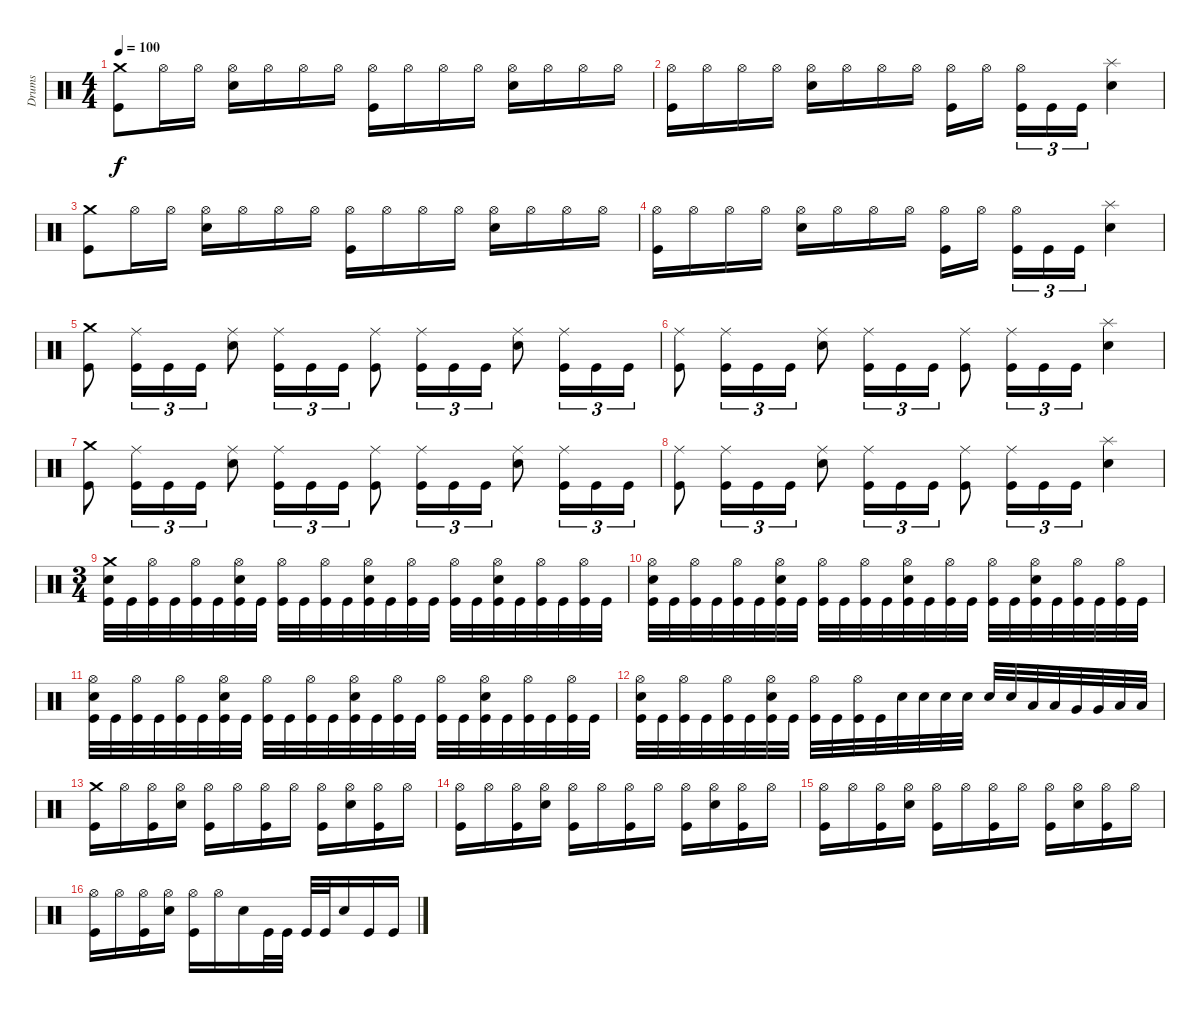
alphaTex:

\track ("Drums" "Drums") {instrument percussion}
\staff {score}
\articulation defaults
\ts (4 4)
\tempo 100
\clef neutral
\ks c
("Kick (hit)" "Crash medium (hit)").8{dy f} "Hi-Hat (open)".16 "Hi-Hat (open)".16 ("Hi-Hat (open)" "Electric Snare (hit)").16 "Hi-Hat (open)".16 "Hi-Hat (open)".16 "Hi-Hat (open)".16 ("Kick (hit)" "Hi-Hat (open)").16 "Hi-Hat (open)".16 "Hi-Hat (open)".16 "Hi-Hat (open)".16 ("Hi-Hat (open)" "Electric Snare (hit)").16 "Hi-Hat (open)".16 "Hi-Hat (open)".16 "Hi-Hat (open)".16 |
("Kick (hit)" "Hi-Hat (open)").16 "Hi-Hat (open)".16 "Hi-Hat (open)".16 "Hi-Hat (open)".16 ("Hi-Hat (open)" "Electric Snare (hit)").16 "Hi-Hat (open)".16 "Hi-Hat (open)".16 "Hi-Hat (open)".16 ("Kick (hit)" "Hi-Hat (open)").16 "Hi-Hat (open)".16 ("Kick (hit)" "Hi-Hat (open)").16{tu (3 2)} "Kick (hit)".16{tu (3 2)} "Kick (hit)".16{tu (3 2)} ("Electric Snare (hit)" "Splash (hit)").4 |
("Kick (hit)" "Crash medium (hit)").8 "Hi-Hat (open)".16 "Hi-Hat (open)".16 ("Hi-Hat (open)" "Electric Snare (hit)").16 "Hi-Hat (open)".16 "Hi-Hat (open)".16 "Hi-Hat (open)".16 ("Kick (hit)" "Hi-Hat (open)").16 "Hi-Hat (open)".16 "Hi-Hat (open)".16 "Hi-Hat (open)".16 ("Hi-Hat (open)" "Electric Snare (hit)").16 "Hi-Hat (open)".16 "Hi-Hat (open)".16 "Hi-Hat (open)".16 |
("Kick (hit)" "Hi-Hat (open)").16 "Hi-Hat (open)".16 "Hi-Hat (open)".16 "Hi-Hat (open)".16 ("Hi-Hat (open)" "Electric Snare (hit)").16 "Hi-Hat (open)".16 "Hi-Hat (open)".16 "Hi-Hat (open)".16 ("Kick (hit)" "Hi-Hat (open)").16 "Hi-Hat (open)".16 ("Kick (hit)" "Hi-Hat (open)").16{tu (3 2)} "Kick (hit)".16{tu (3 2)} "Kick (hit)".16{tu (3 2)} ("Electric Snare (hit)" "Splash (hit)").4 |
("Kick (hit)" "Crash medium (hit)").8 ("Kick (hit)" "Ride (middle)").16{tu (3 2)} "Kick (hit)".16{tu (3 2)} "Kick (hit)".16{tu (3 2)} ("Ride (middle)" "Electric Snare (hit)").8 ("Kick (hit)" "Ride (middle)").16{tu (3 2)} "Kick (hit)".16{tu (3 2)} "Kick (hit)".16{tu (3 2)} ("Kick (hit)" "Ride (middle)").8 ("Kick (hit)" "Ride (middle)").16{tu (3 2)} "Kick (hit)".16{tu (3 2)} "Kick (hit)".16{tu (3 2)} ("Ride (middle)" "Electric Snare (hit)").8 ("Kick (hit)" "Ride (middle)").16{tu (3 2)} "Kick (hit)".16{tu (3 2)} "Kick (hit)".16{tu (3 2)} |
("Kick (hit)" "Ride (middle)").8 ("Kick (hit)" "Ride (middle)").16{tu (3 2)} "Kick (hit)".16{tu (3 2)} "Kick (hit)".16{tu (3 2)} ("Ride (middle)" "Electric Snare (hit)").8 ("Kick (hit)" "Ride (middle)").16{tu (3 2)} "Kick (hit)".16{tu (3 2)} "Kick (hit)".16{tu (3 2)} ("Kick (hit)" "Ride (middle)").8 ("Kick (hit)" "Ride (middle)").16{tu (3 2)} "Kick (hit)".16{tu (3 2)} "Kick (hit)".16{tu (3 2)} ("Electric Snare (hit)" "Splash (hit)").4 |
("Kick (hit)" "Crash medium (hit)").8 ("Kick (hit)" "Ride (middle)").16{tu (3 2)} "Kick (hit)".16{tu (3 2)} "Kick (hit)".16{tu (3 2)} ("Ride (middle)" "Electric Snare (hit)").8 ("Kick (hit)" "Ride (middle)").16{tu (3 2)} "Kick (hit)".16{tu (3 2)} "Kick (hit)".16{tu (3 2)} ("Kick (hit)" "Ride (middle)").8 ("Kick (hit)" "Ride (middle)").16{tu (3 2)} "Kick (hit)".16{tu (3 2)} "Kick (hit)".16{tu (3 2)} ("Ride (middle)" "Electric Snare (hit)").8 ("Kick (hit)" "Ride (middle)").16{tu (3 2)} "Kick (hit)".16{tu (3 2)} "Kick (hit)".16{tu (3 2)} |
("Kick (hit)" "Ride (middle)").8 ("Kick (hit)" "Ride (middle)").16{tu (3 2)} "Kick (hit)".16{tu (3 2)} "Kick (hit)".16{tu (3 2)} ("Ride (middle)" "Electric Snare (hit)").8 ("Kick (hit)" "Ride (middle)").16{tu (3 2)} "Kick (hit)".16{tu (3 2)} "Kick (hit)".16{tu (3 2)} ("Kick (hit)" "Ride (middle)").8 ("Kick (hit)" "Ride (middle)").16{tu (3 2)} "Kick (hit)".16{tu (3 2)} "Kick (hit)".16{tu (3 2)} ("Electric Snare (hit)" "Splash (hit)").4 |
\ts (3 4)
("Kick (hit)" "Electric Snare (hit)" "Crash medium (hit)").32 "Kick (hit)".32 ("Kick (hit)" "Hi-Hat (open)").32 "Kick (hit)".32 ("Kick (hit)" "Hi-Hat (open)").32 "Kick (hit)".32 ("Kick (hit)" "Hi-Hat (open)" "Electric Snare (hit)").32 "Kick (hit)".32 ("Kick (hit)" "Hi-Hat (open)").32 "Kick (hit)".32 ("Kick (hit)" "Hi-Hat (open)").32 "Kick (hit)".32 ("Kick (hit)" "Hi-Hat (open)" "Electric Snare (hit)").32 "Kick (hit)".32 ("Kick (hit)" "Hi-Hat (open)").32 "Kick (hit)".32 ("Kick (hit)" "Hi-Hat (open)").32 "Kick (hit)".32 ("Kick (hit)" "Hi-Hat (open)" "Electric Snare (hit)").32 "Kick (hit)".32 ("Kick (hit)" "Hi-Hat (open)").32 "Kick (hit)".32 ("Kick (hit)" "Hi-Hat (open)").32 "Kick (hit)".32 |
("Kick (hit)" "Hi-Hat (open)" "Electric Snare (hit)").32 "Kick (hit)".32 ("Kick (hit)" "Hi-Hat (open)").32 "Kick (hit)".32 ("Kick (hit)" "Hi-Hat (open)").32 "Kick (hit)".32 ("Kick (hit)" "Hi-Hat (open)" "Electric Snare (hit)").32 "Kick (hit)".32 ("Kick (hit)" "Hi-Hat (open)").32 "Kick (hit)".32 ("Kick (hit)" "Hi-Hat (open)").32 "Kick (hit)".32 ("Kick (hit)" "Hi-Hat (open)" "Electric Snare (hit)").32 "Kick (hit)".32 ("Kick (hit)" "Hi-Hat (open)").32 "Kick (hit)".32 ("Kick (hit)" "Hi-Hat (open)").32 "Kick (hit)".32 ("Kick (hit)" "Hi-Hat (open)" "Electric Snare (hit)").32 "Kick (hit)".32 ("Kick (hit)" "Hi-Hat (open)").32 "Kick (hit)".32 ("Kick (hit)" "Hi-Hat (open)").32 "Kick (hit)".32 |
("Kick (hit)" "Hi-Hat (open)" "Electric Snare (hit)").32 "Kick (hit)".32 ("Kick (hit)" "Hi-Hat (open)").32 "Kick (hit)".32 ("Kick (hit)" "Hi-Hat (open)").32 "Kick (hit)".32 ("Kick (hit)" "Hi-Hat (open)" "Electric Snare (hit)").32 "Kick (hit)".32 ("Kick (hit)" "Hi-Hat (open)").32 "Kick (hit)".32 ("Kick (hit)" "Hi-Hat (open)").32 "Kick (hit)".32 ("Kick (hit)" "Hi-Hat (open)" "Electric Snare (hit)").32 "Kick (hit)".32 ("Kick (hit)" "Hi-Hat (open)").32 "Kick (hit)".32 ("Kick (hit)" "Hi-Hat (open)").32 "Kick (hit)".32 ("Kick (hit)" "Hi-Hat (open)" "Electric Snare (hit)").32 "Kick (hit)".32 ("Kick (hit)" "Hi-Hat (open)").32 "Kick (hit)".32 ("Kick (hit)" "Hi-Hat (open)").32 "Kick (hit)".32 |
("Kick (hit)" "Hi-Hat (open)" "Electric Snare (hit)").32 "Kick (hit)".32 ("Kick (hit)" "Hi-Hat (open)").32 "Kick (hit)".32 ("Kick (hit)" "Hi-Hat (open)").32 "Kick (hit)".32 ("Kick (hit)" "Hi-Hat (open)" "Electric Snare (hit)").32 "Kick (hit)".32 ("Kick (hit)" "Hi-Hat (open)").32 "Kick (hit)".32 ("Kick (hit)" "Hi-Hat (open)").32 "Kick (hit)".32 "Electric Snare (hit)".32 "Electric Snare (hit)".32 "Electric Snare (hit)".32 "Electric Snare (hit)".32 "Electric Snare (hit)".32 "Electric Snare (hit)".32 "Low Tom (hit)".32 "Low Tom (hit)".32 "Very Low Tom (hit)".32 "Very Low Tom (hit)".32 "Low Floor Tom (hit)".32 "Low Floor Tom (hit)".32 |
("Kick (hit)" "Crash medium (hit)").16 "Hi-Hat (open)".16 ("Kick (hit)" "Hi-Hat (open)").16 ("Hi-Hat (open)" "Electric Snare (hit)").16 ("Kick (hit)" "Hi-Hat (open)").16 "Hi-Hat (open)".16 ("Kick (hit)" "Hi-Hat (open)").16 "Hi-Hat (open)".16 ("Kick (hit)" "Hi-Hat (open)").16 ("Hi-Hat (open)" "Electric Snare (hit)").16 ("Kick (hit)" "Hi-Hat (open)").16 "Hi-Hat (open)".16 |
("Kick (hit)" "Hi-Hat (open)").16 "Hi-Hat (open)".16 ("Kick (hit)" "Hi-Hat (open)").16 ("Hi-Hat (open)" "Electric Snare (hit)").16 ("Kick (hit)" "Hi-Hat (open)").16 "Hi-Hat (open)".16 ("Kick (hit)" "Hi-Hat (open)").16 "Hi-Hat (open)".16 ("Kick (hit)" "Hi-Hat (open)").16 ("Hi-Hat (open)" "Electric Snare (hit)").16 ("Kick (hit)" "Hi-Hat (open)").16 "Hi-Hat (open)".16 |
("Kick (hit)" "Hi-Hat (open)").16 "Hi-Hat (open)".16 ("Kick (hit)" "Hi-Hat (open)").16 ("Hi-Hat (open)" "Electric Snare (hit)").16 ("Kick (hit)" "Hi-Hat (open)").16 "Hi-Hat (open)".16 ("Kick (hit)" "Hi-Hat (open)").16 "Hi-Hat (open)".16 ("Kick (hit)" "Hi-Hat (open)").16 ("Hi-Hat (open)" "Electric Snare (hit)").16 ("Kick (hit)" "Hi-Hat (open)").16 "Hi-Hat (open)".16 |
("Kick (hit)" "Hi-Hat (open)").16 "Hi-Hat (open)".16 ("Kick (hit)" "Hi-Hat (open)").16 ("Hi-Hat (open)" "Electric Snare (hit)").16 ("Kick (hit)" "Hi-Hat (open)").16 "Hi-Hat (open)".16 "Electric Snare (hit)".16 "Kick (hit)".32 "Kick (hit)".32 "Kick (hit)".32 "Kick (hit)".32 "Electric Snare (hit)".16 "Kick (hit)".16 "Kick (hit)".16
